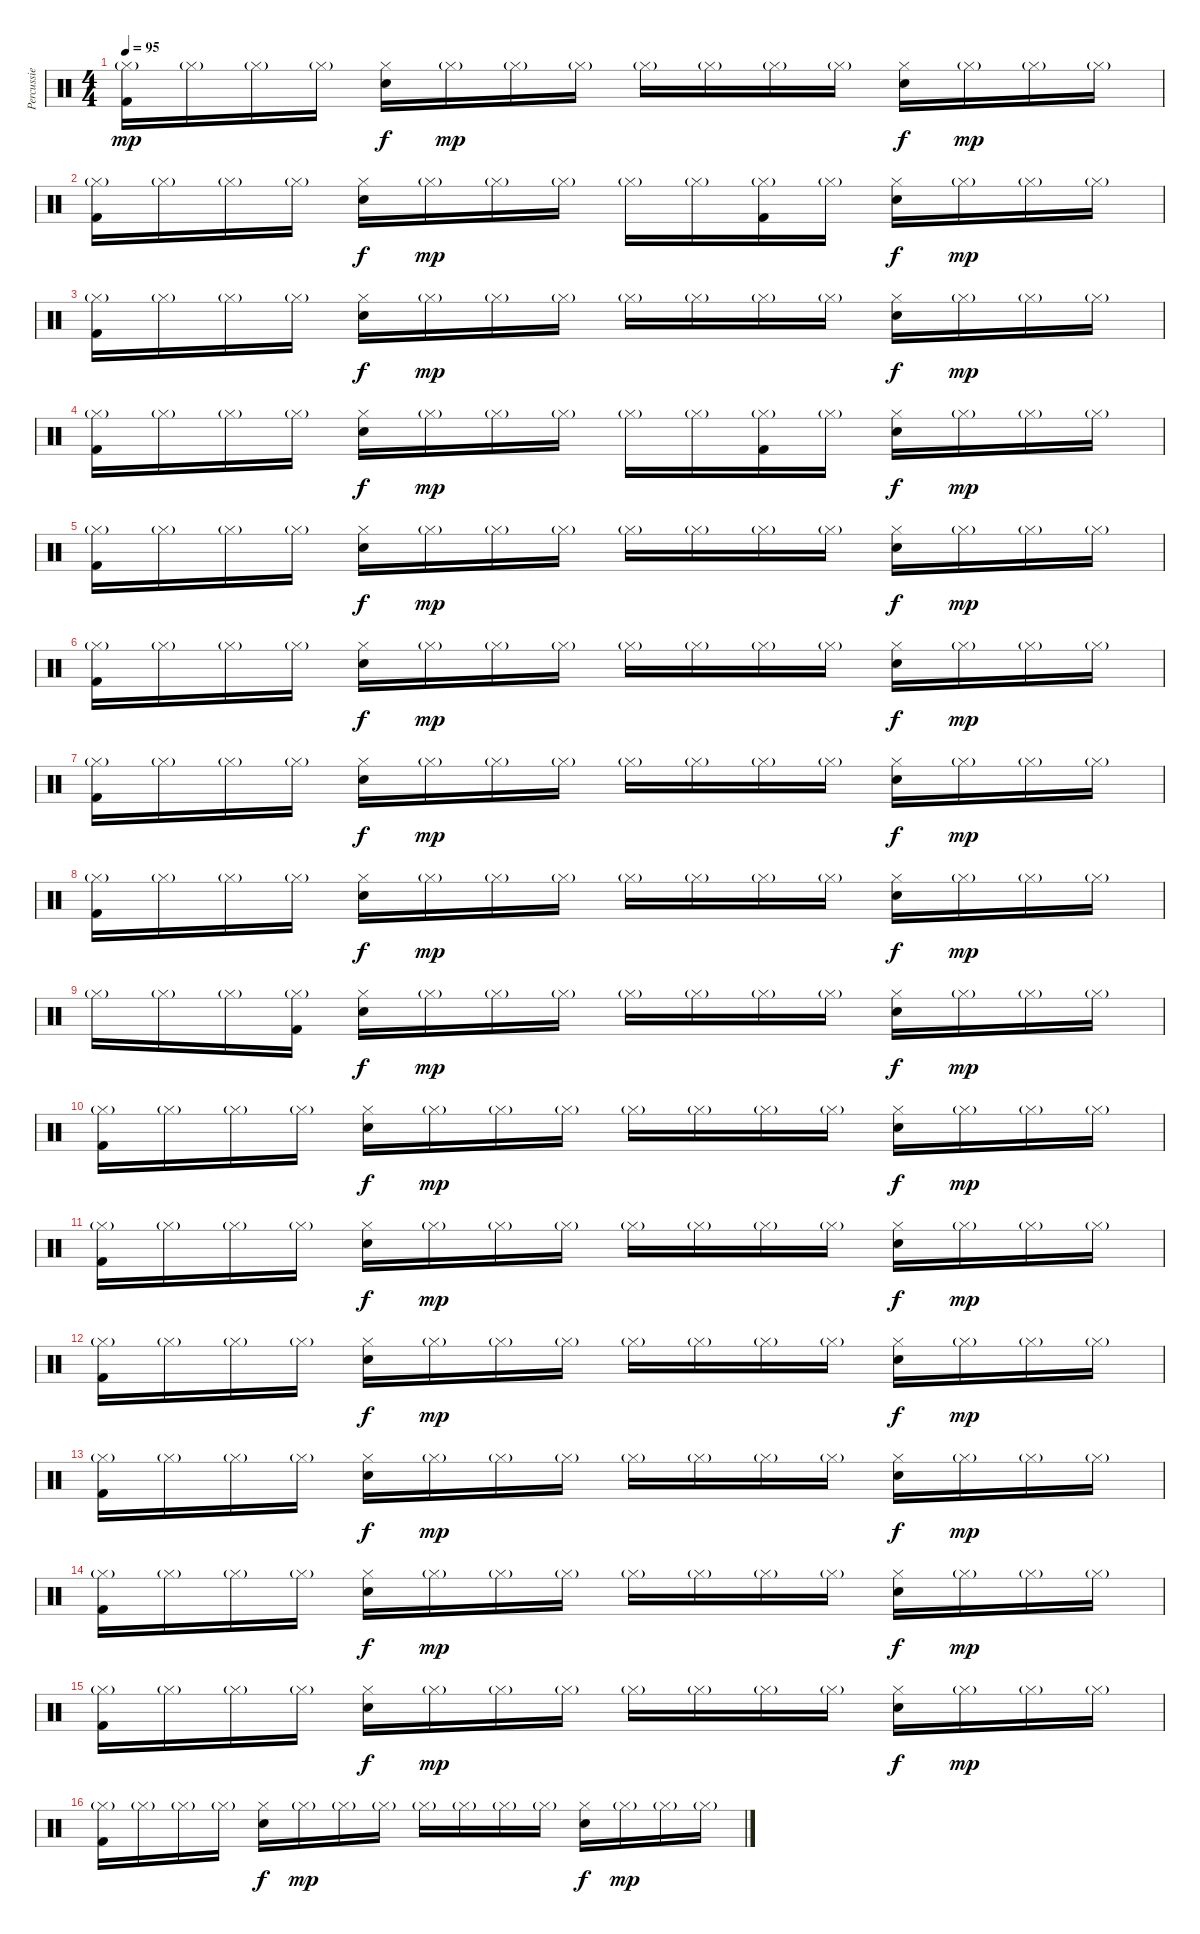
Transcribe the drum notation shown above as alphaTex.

\track ("Percussie" "Percussie") {instrument percussion}
\staff {score}
\articulation defaults
\ts (4 4)
\tempo 95
\clef neutral
\ks c
("Hi-Hat (closed)"{g} "Kick (hit) 2").16{dy mp} "Hi-Hat (closed)"{g}.16 "Hi-Hat (closed)"{g}.16 "Hi-Hat (closed)"{g}.16 ("Hi-Hat (closed)" "Snare (hit) 2").16{dy f} "Hi-Hat (closed)"{g}.16{dy mp} "Hi-Hat (closed)"{g}.16 "Hi-Hat (closed)"{g}.16 "Hi-Hat (closed)"{g}.16 "Hi-Hat (closed)"{g}.16 "Hi-Hat (closed)"{g}.16 "Hi-Hat (closed)"{g}.16 ("Hi-Hat (closed)" "Snare (hit) 2").16{dy f} "Hi-Hat (closed)"{g}.16{dy mp} "Hi-Hat (closed)"{g}.16 "Hi-Hat (closed)"{g}.16 |
("Hi-Hat (closed)"{g} "Kick (hit) 2").16 "Hi-Hat (closed)"{g}.16 "Hi-Hat (closed)"{g}.16 "Hi-Hat (closed)"{g}.16 ("Hi-Hat (closed)" "Snare (hit) 2").16{dy f} "Hi-Hat (closed)"{g}.16{dy mp} "Hi-Hat (closed)"{g}.16 "Hi-Hat (closed)"{g}.16 "Hi-Hat (closed)"{g}.16 "Hi-Hat (closed)"{g}.16 ("Hi-Hat (closed)"{g} "Kick (hit) 2").16 "Hi-Hat (closed)"{g}.16 ("Hi-Hat (closed)" "Snare (hit) 2").16{dy f} "Hi-Hat (closed)"{g}.16{dy mp} "Hi-Hat (closed)"{g}.16 "Hi-Hat (closed)"{g}.16 |
("Hi-Hat (closed)"{g} "Kick (hit) 2").16 "Hi-Hat (closed)"{g}.16 "Hi-Hat (closed)"{g}.16 "Hi-Hat (closed)"{g}.16 ("Hi-Hat (closed)" "Snare (hit) 2").16{dy f} "Hi-Hat (closed)"{g}.16{dy mp} "Hi-Hat (closed)"{g}.16 "Hi-Hat (closed)"{g}.16 "Hi-Hat (closed)"{g}.16 "Hi-Hat (closed)"{g}.16 "Hi-Hat (closed)"{g}.16 "Hi-Hat (closed)"{g}.16 ("Hi-Hat (closed)" "Snare (hit) 2").16{dy f} "Hi-Hat (closed)"{g}.16{dy mp} "Hi-Hat (closed)"{g}.16 "Hi-Hat (closed)"{g}.16 |
("Hi-Hat (closed)"{g} "Kick (hit) 2").16 "Hi-Hat (closed)"{g}.16 "Hi-Hat (closed)"{g}.16 "Hi-Hat (closed)"{g}.16 ("Hi-Hat (closed)" "Snare (hit) 2").16{dy f} "Hi-Hat (closed)"{g}.16{dy mp} "Hi-Hat (closed)"{g}.16 "Hi-Hat (closed)"{g}.16 "Hi-Hat (closed)"{g}.16 "Hi-Hat (closed)"{g}.16 ("Hi-Hat (closed)"{g} "Kick (hit) 2").16 "Hi-Hat (closed)"{g}.16 ("Hi-Hat (closed)" "Snare (hit) 2").16{dy f} "Hi-Hat (closed)"{g}.16{dy mp} "Hi-Hat (closed)"{g}.16 "Hi-Hat (closed)"{g}.16 |
("Hi-Hat (closed)"{g} "Kick (hit) 2").16 "Hi-Hat (closed)"{g}.16 "Hi-Hat (closed)"{g}.16 "Hi-Hat (closed)"{g}.16 ("Hi-Hat (closed)" "Snare (hit) 2").16{dy f} "Hi-Hat (closed)"{g}.16{dy mp} "Hi-Hat (closed)"{g}.16 "Hi-Hat (closed)"{g}.16 "Hi-Hat (closed)"{g}.16 "Hi-Hat (closed)"{g}.16 "Hi-Hat (closed)"{g}.16 "Hi-Hat (closed)"{g}.16 ("Hi-Hat (closed)" "Snare (hit) 2").16{dy f} "Hi-Hat (closed)"{g}.16{dy mp} "Hi-Hat (closed)"{g}.16 "Hi-Hat (closed)"{g}.16 |
("Hi-Hat (closed)"{g} "Kick (hit) 2").16 "Hi-Hat (closed)"{g}.16 "Hi-Hat (closed)"{g}.16 "Hi-Hat (closed)"{g}.16 ("Hi-Hat (closed)" "Snare (hit) 2").16{dy f} "Hi-Hat (closed)"{g}.16{dy mp} "Hi-Hat (closed)"{g}.16 "Hi-Hat (closed)"{g}.16 "Hi-Hat (closed)"{g}.16 "Hi-Hat (closed)"{g}.16 "Hi-Hat (closed)"{g}.16 "Hi-Hat (closed)"{g}.16 ("Hi-Hat (closed)" "Snare (hit) 2").16{dy f} "Hi-Hat (closed)"{g}.16{dy mp} "Hi-Hat (closed)"{g}.16 "Hi-Hat (closed)"{g}.16 |
("Hi-Hat (closed)"{g} "Kick (hit) 2").16 "Hi-Hat (closed)"{g}.16 "Hi-Hat (closed)"{g}.16 "Hi-Hat (closed)"{g}.16 ("Hi-Hat (closed)" "Snare (hit) 2").16{dy f} "Hi-Hat (closed)"{g}.16{dy mp} "Hi-Hat (closed)"{g}.16 "Hi-Hat (closed)"{g}.16 "Hi-Hat (closed)"{g}.16 "Hi-Hat (closed)"{g}.16 "Hi-Hat (closed)"{g}.16 "Hi-Hat (closed)"{g}.16 ("Hi-Hat (closed)" "Snare (hit) 2").16{dy f} "Hi-Hat (closed)"{g}.16{dy mp} "Hi-Hat (closed)"{g}.16 "Hi-Hat (closed)"{g}.16 |
("Hi-Hat (closed)"{g} "Kick (hit) 2").16 "Hi-Hat (closed)"{g}.16 "Hi-Hat (closed)"{g}.16 "Hi-Hat (closed)"{g}.16 ("Hi-Hat (closed)" "Snare (hit) 2").16{dy f} "Hi-Hat (closed)"{g}.16{dy mp} "Hi-Hat (closed)"{g}.16 "Hi-Hat (closed)"{g}.16 "Hi-Hat (closed)"{g}.16 "Hi-Hat (closed)"{g}.16 "Hi-Hat (closed)"{g}.16 "Hi-Hat (closed)"{g}.16 ("Hi-Hat (closed)" "Snare (hit) 2").16{dy f} "Hi-Hat (closed)"{g}.16{dy mp} "Hi-Hat (closed)"{g}.16 "Hi-Hat (closed)"{g}.16 |
"Hi-Hat (closed)"{g}.16 "Hi-Hat (closed)"{g}.16 "Hi-Hat (closed)"{g}.16 ("Hi-Hat (closed)"{g} "Kick (hit) 2").16 ("Hi-Hat (closed)" "Snare (hit) 2").16{dy f} "Hi-Hat (closed)"{g}.16{dy mp} "Hi-Hat (closed)"{g}.16 "Hi-Hat (closed)"{g}.16 "Hi-Hat (closed)"{g}.16 "Hi-Hat (closed)"{g}.16 "Hi-Hat (closed)"{g}.16 "Hi-Hat (closed)"{g}.16 ("Hi-Hat (closed)" "Snare (hit) 2").16{dy f} "Hi-Hat (closed)"{g}.16{dy mp} "Hi-Hat (closed)"{g}.16 "Hi-Hat (closed)"{g}.16 |
("Hi-Hat (closed)"{g} "Kick (hit) 2").16 "Hi-Hat (closed)"{g}.16 "Hi-Hat (closed)"{g}.16 "Hi-Hat (closed)"{g}.16 ("Hi-Hat (closed)" "Snare (hit) 2").16{dy f} "Hi-Hat (closed)"{g}.16{dy mp} "Hi-Hat (closed)"{g}.16 "Hi-Hat (closed)"{g}.16 "Hi-Hat (closed)"{g}.16 "Hi-Hat (closed)"{g}.16 "Hi-Hat (closed)"{g}.16 "Hi-Hat (closed)"{g}.16 ("Hi-Hat (closed)" "Snare (hit) 2").16{dy f} "Hi-Hat (closed)"{g}.16{dy mp} "Hi-Hat (closed)"{g}.16 "Hi-Hat (closed)"{g}.16 |
("Hi-Hat (closed)"{g} "Kick (hit) 2").16 "Hi-Hat (closed)"{g}.16 "Hi-Hat (closed)"{g}.16 "Hi-Hat (closed)"{g}.16 ("Hi-Hat (closed)" "Snare (hit) 2").16{dy f} "Hi-Hat (closed)"{g}.16{dy mp} "Hi-Hat (closed)"{g}.16 "Hi-Hat (closed)"{g}.16 "Hi-Hat (closed)"{g}.16 "Hi-Hat (closed)"{g}.16 "Hi-Hat (closed)"{g}.16 "Hi-Hat (closed)"{g}.16 ("Hi-Hat (closed)" "Snare (hit) 2").16{dy f} "Hi-Hat (closed)"{g}.16{dy mp} "Hi-Hat (closed)"{g}.16 "Hi-Hat (closed)"{g}.16 |
("Hi-Hat (closed)"{g} "Kick (hit) 2").16 "Hi-Hat (closed)"{g}.16 "Hi-Hat (closed)"{g}.16 "Hi-Hat (closed)"{g}.16 ("Hi-Hat (closed)" "Snare (hit) 2").16{dy f} "Hi-Hat (closed)"{g}.16{dy mp} "Hi-Hat (closed)"{g}.16 "Hi-Hat (closed)"{g}.16 "Hi-Hat (closed)"{g}.16 "Hi-Hat (closed)"{g}.16 "Hi-Hat (closed)"{g}.16 "Hi-Hat (closed)"{g}.16 ("Hi-Hat (closed)" "Snare (hit) 2").16{dy f} "Hi-Hat (closed)"{g}.16{dy mp} "Hi-Hat (closed)"{g}.16 "Hi-Hat (closed)"{g}.16 |
("Hi-Hat (closed)"{g} "Kick (hit) 2").16 "Hi-Hat (closed)"{g}.16 "Hi-Hat (closed)"{g}.16 "Hi-Hat (closed)"{g}.16 ("Hi-Hat (closed)" "Snare (hit) 2").16{dy f} "Hi-Hat (closed)"{g}.16{dy mp} "Hi-Hat (closed)"{g}.16 "Hi-Hat (closed)"{g}.16 "Hi-Hat (closed)"{g}.16 "Hi-Hat (closed)"{g}.16 "Hi-Hat (closed)"{g}.16 "Hi-Hat (closed)"{g}.16 ("Hi-Hat (closed)" "Snare (hit) 2").16{dy f} "Hi-Hat (closed)"{g}.16{dy mp} "Hi-Hat (closed)"{g}.16 "Hi-Hat (closed)"{g}.16 |
("Hi-Hat (closed)"{g} "Kick (hit) 2").16 "Hi-Hat (closed)"{g}.16 "Hi-Hat (closed)"{g}.16 "Hi-Hat (closed)"{g}.16 ("Hi-Hat (closed)" "Snare (hit) 2").16{dy f} "Hi-Hat (closed)"{g}.16{dy mp} "Hi-Hat (closed)"{g}.16 "Hi-Hat (closed)"{g}.16 "Hi-Hat (closed)"{g}.16 "Hi-Hat (closed)"{g}.16 "Hi-Hat (closed)"{g}.16 "Hi-Hat (closed)"{g}.16 ("Hi-Hat (closed)" "Snare (hit) 2").16{dy f} "Hi-Hat (closed)"{g}.16{dy mp} "Hi-Hat (closed)"{g}.16 "Hi-Hat (closed)"{g}.16 |
("Hi-Hat (closed)"{g} "Kick (hit) 2").16 "Hi-Hat (closed)"{g}.16 "Hi-Hat (closed)"{g}.16 "Hi-Hat (closed)"{g}.16 ("Hi-Hat (closed)" "Snare (hit) 2").16{dy f} "Hi-Hat (closed)"{g}.16{dy mp} "Hi-Hat (closed)"{g}.16 "Hi-Hat (closed)"{g}.16 "Hi-Hat (closed)"{g}.16 "Hi-Hat (closed)"{g}.16 "Hi-Hat (closed)"{g}.16 "Hi-Hat (closed)"{g}.16 ("Hi-Hat (closed)" "Snare (hit) 2").16{dy f} "Hi-Hat (closed)"{g}.16{dy mp} "Hi-Hat (closed)"{g}.16 "Hi-Hat (closed)"{g}.16 |
("Hi-Hat (closed)"{g} "Kick (hit) 2").16 "Hi-Hat (closed)"{g}.16 "Hi-Hat (closed)"{g}.16 "Hi-Hat (closed)"{g}.16 ("Hi-Hat (closed)" "Snare (hit) 2").16{dy f} "Hi-Hat (closed)"{g}.16{dy mp} "Hi-Hat (closed)"{g}.16 "Hi-Hat (closed)"{g}.16 "Hi-Hat (closed)"{g}.16 "Hi-Hat (closed)"{g}.16 "Hi-Hat (closed)"{g}.16 "Hi-Hat (closed)"{g}.16 ("Hi-Hat (closed)" "Snare (hit) 2").16{dy f} "Hi-Hat (closed)"{g}.16{dy mp} "Hi-Hat (closed)"{g}.16 "Hi-Hat (closed)"{g}.16
